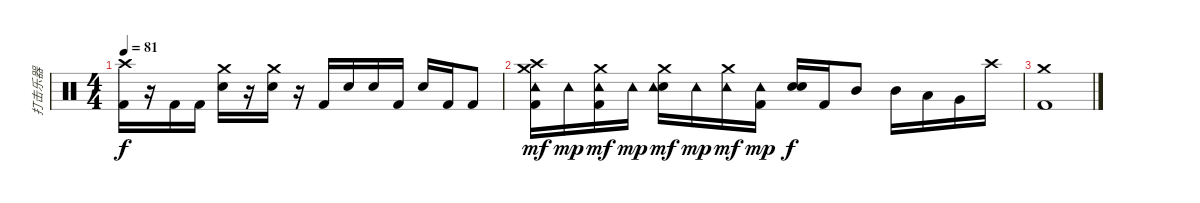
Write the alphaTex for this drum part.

\track ("打击乐器" "打击乐器") {instrument percussion}
\staff {score}
\articulation defaults
\ts (4 4)
\tempo 81
\clef neutral
\ks c
("Crash high (hit)" "Kick (hit) 2").16{dy f} r.16 "Kick (hit) 2".16 "Kick (hit) 2".16 ("Electric Snare (hit)" "Crash medium (hit)").16 r.16 ("Electric Snare (hit)" "Crash medium (hit)").16 r.16 "Kick (hit) 2".16 "Electric Snare (hit)".16 "Electric Snare (hit)".16 "Kick (hit) 2".16 "Electric Snare (hit)".16 "Kick (hit) 2".16 "Kick (hit) 2".8 |
("Crash high (hit)" "Crash medium (hit)" "Tambourine (hit)" "Kick (hit) 2").16{dy mf} "Tambourine (hit)".16{dy mp} ("Crash medium (hit)" "Tambourine (hit)" "Kick (hit) 2").16{dy mf} "Tambourine (hit)".16{dy mp} ("Electric Snare (hit)" "Crash medium (hit)" "Tambourine (hit)").16{dy mf} "Tambourine (hit)".16{dy mp} ("Crash medium (hit)" "Tambourine (hit)").16{dy mf} ("Tambourine (hit)" "Kick (hit) 2").16{dy mp} ("Electric Snare (hit)" "Electric Snare (hit)").16{bd 60 dy f} "Kick (hit) 2".16 "Mid Tom (hit)".8 "Mid Tom (hit)".16 "Low Tom (hit)".16 "Very Low Tom (hit)".16 "Crash high (hit)".16 |
("Crash medium (hit)" "Kick (hit) 2").1
